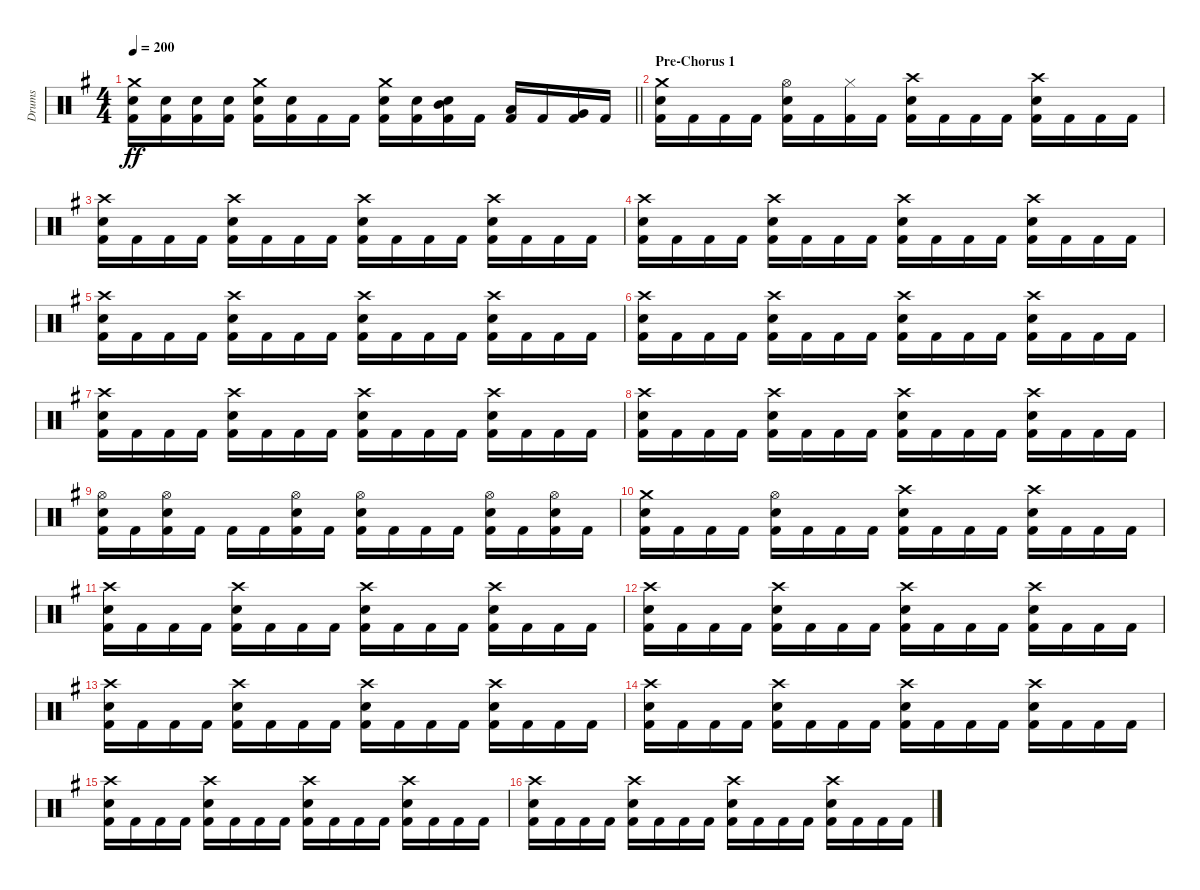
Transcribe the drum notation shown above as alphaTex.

\track ("Drums" "Drums") {instrument percussion}
\staff {score}
\articulation defaults
\ts (4 4)
\tempo 200
\clef neutral
\barLineRight lightlight
\ks g
("Crash medium (hit)" "Snare (hit) 2" "Kick (hit) 2").16{dy ff} ("Snare (hit) 2" "Kick (hit) 2").16 ("Snare (hit) 2" "Kick (hit) 2").16 ("Snare (hit) 2" "Kick (hit) 2").16 ("Crash medium (hit)" "Snare (hit) 2" "Kick (hit) 2").16 ("Snare (hit) 2" "Kick (hit) 2").16 "Kick (hit) 2".16 "Kick (hit) 2".16 ("Crash medium (hit)" "Snare (hit) 2" "Kick (hit) 2").16 ("Snare (hit) 2" "Kick (hit) 2").16 ("Mid Tom (hit)" "Snare (hit) 2" "Kick (hit) 2").16 "Kick (hit) 2".16 ("Low Tom (hit)" "Kick (hit) 2").16 "Kick (hit) 2".16 ("Very Low Tom (hit)" "Kick (hit) 2").16 "Kick (hit) 2".16 |
\section ("" "Pre-Chorus 1")
("Crash medium (hit)" "Snare (hit) 2" "Kick (hit) 2").16 "Kick (hit) 2".16 "Kick (hit) 2".16 "Kick (hit) 2".16 ("Hi-Hat (open)" "Snare (hit) 2" "Kick (hit) 2").16 "Kick (hit) 2".16 ("Hi-Hat (closed)" "Kick (hit) 2").16 "Kick (hit) 2".16 ("Crash high (hit)" "Snare (hit) 2" "Kick (hit) 2").16 "Kick (hit) 2".16 "Kick (hit) 2".16 "Kick (hit) 2".16 ("Crash high (hit)" "Snare (hit) 2" "Kick (hit) 2").16 "Kick (hit) 2".16 "Kick (hit) 2".16 "Kick (hit) 2".16 |
("Crash high (hit)" "Snare (hit) 2" "Kick (hit) 2").16 "Kick (hit) 2".16 "Kick (hit) 2".16 "Kick (hit) 2".16 ("Crash high (hit)" "Snare (hit) 2" "Kick (hit) 2").16 "Kick (hit) 2".16 "Kick (hit) 2".16 "Kick (hit) 2".16 ("Crash high (hit)" "Snare (hit) 2" "Kick (hit) 2").16 "Kick (hit) 2".16 "Kick (hit) 2".16 "Kick (hit) 2".16 ("Crash high (hit)" "Snare (hit) 2" "Kick (hit) 2").16 "Kick (hit) 2".16 "Kick (hit) 2".16 "Kick (hit) 2".16 |
("Crash high (hit)" "Snare (hit) 2" "Kick (hit) 2").16 "Kick (hit) 2".16 "Kick (hit) 2".16 "Kick (hit) 2".16 ("Crash high (hit)" "Snare (hit) 2" "Kick (hit) 2").16 "Kick (hit) 2".16 "Kick (hit) 2".16 "Kick (hit) 2".16 ("Crash high (hit)" "Snare (hit) 2" "Kick (hit) 2").16 "Kick (hit) 2".16 "Kick (hit) 2".16 "Kick (hit) 2".16 ("Crash high (hit)" "Snare (hit) 2" "Kick (hit) 2").16 "Kick (hit) 2".16 "Kick (hit) 2".16 "Kick (hit) 2".16 |
("Crash high (hit)" "Snare (hit) 2" "Kick (hit) 2").16 "Kick (hit) 2".16 "Kick (hit) 2".16 "Kick (hit) 2".16 ("Crash high (hit)" "Snare (hit) 2" "Kick (hit) 2").16 "Kick (hit) 2".16 "Kick (hit) 2".16 "Kick (hit) 2".16 ("Crash high (hit)" "Snare (hit) 2" "Kick (hit) 2").16 "Kick (hit) 2".16 "Kick (hit) 2".16 "Kick (hit) 2".16 ("Crash high (hit)" "Snare (hit) 2" "Kick (hit) 2").16 "Kick (hit) 2".16 "Kick (hit) 2".16 "Kick (hit) 2".16 |
("Crash high (hit)" "Snare (hit) 2" "Kick (hit) 2").16 "Kick (hit) 2".16 "Kick (hit) 2".16 "Kick (hit) 2".16 ("Crash high (hit)" "Snare (hit) 2" "Kick (hit) 2").16 "Kick (hit) 2".16 "Kick (hit) 2".16 "Kick (hit) 2".16 ("Crash high (hit)" "Snare (hit) 2" "Kick (hit) 2").16 "Kick (hit) 2".16 "Kick (hit) 2".16 "Kick (hit) 2".16 ("Crash high (hit)" "Snare (hit) 2" "Kick (hit) 2").16 "Kick (hit) 2".16 "Kick (hit) 2".16 "Kick (hit) 2".16 |
("Crash high (hit)" "Snare (hit) 2" "Kick (hit) 2").16 "Kick (hit) 2".16 "Kick (hit) 2".16 "Kick (hit) 2".16 ("Crash high (hit)" "Snare (hit) 2" "Kick (hit) 2").16 "Kick (hit) 2".16 "Kick (hit) 2".16 "Kick (hit) 2".16 ("Crash high (hit)" "Snare (hit) 2" "Kick (hit) 2").16 "Kick (hit) 2".16 "Kick (hit) 2".16 "Kick (hit) 2".16 ("Crash high (hit)" "Snare (hit) 2" "Kick (hit) 2").16 "Kick (hit) 2".16 "Kick (hit) 2".16 "Kick (hit) 2".16 |
("Crash high (hit)" "Snare (hit) 2" "Kick (hit) 2").16 "Kick (hit) 2".16 "Kick (hit) 2".16 "Kick (hit) 2".16 ("Crash high (hit)" "Snare (hit) 2" "Kick (hit) 2").16 "Kick (hit) 2".16 "Kick (hit) 2".16 "Kick (hit) 2".16 ("Crash high (hit)" "Snare (hit) 2" "Kick (hit) 2").16 "Kick (hit) 2".16 "Kick (hit) 2".16 "Kick (hit) 2".16 ("Crash high (hit)" "Snare (hit) 2" "Kick (hit) 2").16 "Kick (hit) 2".16 "Kick (hit) 2".16 "Kick (hit) 2".16 |
("Hi-Hat (open)" "Snare (hit) 2" "Kick (hit) 2").16 "Kick (hit) 2".16 ("Hi-Hat (open)" "Snare (hit) 2" "Kick (hit) 2").16 "Kick (hit) 2".16 "Kick (hit) 2".16 "Kick (hit) 2".16 ("Hi-Hat (open)" "Snare (hit) 2" "Kick (hit) 2").16 "Kick (hit) 2".16 ("Hi-Hat (open)" "Snare (hit) 2" "Kick (hit) 2").16 "Kick (hit) 2".16 "Kick (hit) 2".16 "Kick (hit) 2".16 ("Hi-Hat (open)" "Snare (hit) 2" "Kick (hit) 2").16 "Kick (hit) 2".16 ("Hi-Hat (open)" "Snare (hit) 2" "Kick (hit) 2").16 "Kick (hit) 2".16 |
("Crash medium (hit)" "Snare (hit) 2" "Kick (hit) 2").16 "Kick (hit) 2".16 "Kick (hit) 2".16 "Kick (hit) 2".16 ("Hi-Hat (open)" "Snare (hit) 2" "Kick (hit) 2").16 "Kick (hit) 2".16 "Kick (hit) 2".16 "Kick (hit) 2".16 ("Crash high (hit)" "Snare (hit) 2" "Kick (hit) 2").16 "Kick (hit) 2".16 "Kick (hit) 2".16 "Kick (hit) 2".16 ("Crash high (hit)" "Snare (hit) 2" "Kick (hit) 2").16 "Kick (hit) 2".16 "Kick (hit) 2".16 "Kick (hit) 2".16 |
("Crash high (hit)" "Snare (hit) 2" "Kick (hit) 2").16 "Kick (hit) 2".16 "Kick (hit) 2".16 "Kick (hit) 2".16 ("Crash high (hit)" "Snare (hit) 2" "Kick (hit) 2").16 "Kick (hit) 2".16 "Kick (hit) 2".16 "Kick (hit) 2".16 ("Crash high (hit)" "Snare (hit) 2" "Kick (hit) 2").16 "Kick (hit) 2".16 "Kick (hit) 2".16 "Kick (hit) 2".16 ("Crash high (hit)" "Snare (hit) 2" "Kick (hit) 2").16 "Kick (hit) 2".16 "Kick (hit) 2".16 "Kick (hit) 2".16 |
("Crash high (hit)" "Snare (hit) 2" "Kick (hit) 2").16 "Kick (hit) 2".16 "Kick (hit) 2".16 "Kick (hit) 2".16 ("Crash high (hit)" "Snare (hit) 2" "Kick (hit) 2").16 "Kick (hit) 2".16 "Kick (hit) 2".16 "Kick (hit) 2".16 ("Crash high (hit)" "Snare (hit) 2" "Kick (hit) 2").16 "Kick (hit) 2".16 "Kick (hit) 2".16 "Kick (hit) 2".16 ("Crash high (hit)" "Snare (hit) 2" "Kick (hit) 2").16 "Kick (hit) 2".16 "Kick (hit) 2".16 "Kick (hit) 2".16 |
("Crash high (hit)" "Snare (hit) 2" "Kick (hit) 2").16 "Kick (hit) 2".16 "Kick (hit) 2".16 "Kick (hit) 2".16 ("Crash high (hit)" "Snare (hit) 2" "Kick (hit) 2").16 "Kick (hit) 2".16 "Kick (hit) 2".16 "Kick (hit) 2".16 ("Crash high (hit)" "Snare (hit) 2" "Kick (hit) 2").16 "Kick (hit) 2".16 "Kick (hit) 2".16 "Kick (hit) 2".16 ("Crash high (hit)" "Snare (hit) 2" "Kick (hit) 2").16 "Kick (hit) 2".16 "Kick (hit) 2".16 "Kick (hit) 2".16 |
("Crash high (hit)" "Snare (hit) 2" "Kick (hit) 2").16 "Kick (hit) 2".16 "Kick (hit) 2".16 "Kick (hit) 2".16 ("Crash high (hit)" "Snare (hit) 2" "Kick (hit) 2").16 "Kick (hit) 2".16 "Kick (hit) 2".16 "Kick (hit) 2".16 ("Crash high (hit)" "Snare (hit) 2" "Kick (hit) 2").16 "Kick (hit) 2".16 "Kick (hit) 2".16 "Kick (hit) 2".16 ("Crash high (hit)" "Snare (hit) 2" "Kick (hit) 2").16 "Kick (hit) 2".16 "Kick (hit) 2".16 "Kick (hit) 2".16 |
("Crash high (hit)" "Snare (hit) 2" "Kick (hit) 2").16 "Kick (hit) 2".16 "Kick (hit) 2".16 "Kick (hit) 2".16 ("Crash high (hit)" "Snare (hit) 2" "Kick (hit) 2").16 "Kick (hit) 2".16 "Kick (hit) 2".16 "Kick (hit) 2".16 ("Crash high (hit)" "Snare (hit) 2" "Kick (hit) 2").16 "Kick (hit) 2".16 "Kick (hit) 2".16 "Kick (hit) 2".16 ("Crash high (hit)" "Snare (hit) 2" "Kick (hit) 2").16 "Kick (hit) 2".16 "Kick (hit) 2".16 "Kick (hit) 2".16 |
("Crash high (hit)" "Snare (hit) 2" "Kick (hit) 2").16 "Kick (hit) 2".16 "Kick (hit) 2".16 "Kick (hit) 2".16 ("Crash high (hit)" "Snare (hit) 2" "Kick (hit) 2").16 "Kick (hit) 2".16 "Kick (hit) 2".16 "Kick (hit) 2".16 ("Crash high (hit)" "Snare (hit) 2" "Kick (hit) 2").16 "Kick (hit) 2".16 "Kick (hit) 2".16 "Kick (hit) 2".16 ("Crash high (hit)" "Snare (hit) 2" "Kick (hit) 2").16 "Kick (hit) 2".16 "Kick (hit) 2".16 "Kick (hit) 2".16
